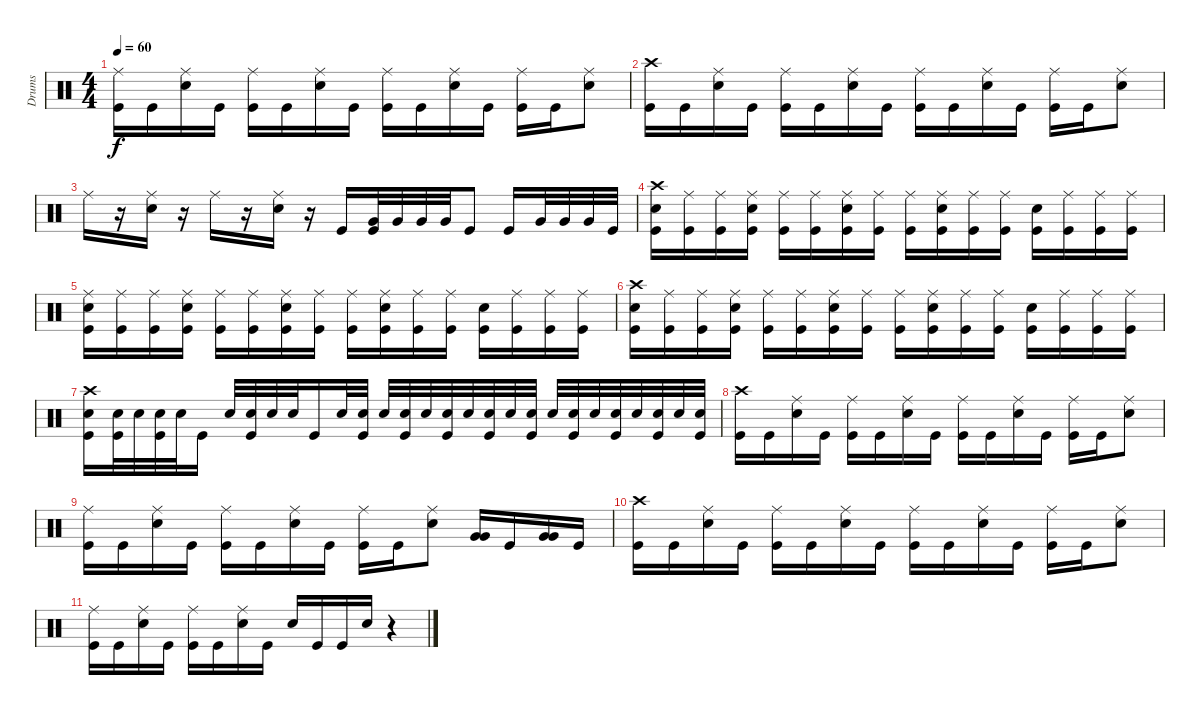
\track ("Drums" "Drums") {instrument percussion}
\staff {score}
\articulation defaults
\ts (4 4)
\tempo 60
\clef neutral
\ks c
("Ride (middle)" "Kick (hit)").16{dy f} "Kick (hit)".16 ("Ride (middle)" "Snare (hit) 2").16 "Kick (hit)".16 ("Ride (middle)" "Kick (hit)").16 "Kick (hit)".16 ("Ride (middle)" "Snare (hit) 2").16 "Kick (hit)".16 ("Ride (middle)" "Kick (hit)").16 "Kick (hit)".16 ("Ride (middle)" "Snare (hit) 2").16 "Kick (hit)".16 ("Ride (middle)" "Kick (hit)").16 "Kick (hit)".16 ("Ride (middle)" "Snare (hit) 2").8 |
("Crash high (hit)" "Kick (hit)").16 "Kick (hit)".16 ("Ride (middle)" "Snare (hit) 2").16 "Kick (hit)".16 ("Ride (middle)" "Kick (hit)").16 "Kick (hit)".16 ("Ride (middle)" "Snare (hit) 2").16 "Kick (hit)".16 ("Ride (middle)" "Kick (hit)").16 "Kick (hit)".16 ("Ride (middle)" "Snare (hit) 2").16 "Kick (hit)".16 ("Ride (middle)" "Kick (hit)").16 "Kick (hit)".16 ("Ride (middle)" "Snare (hit) 2").8 |
"Ride (middle)".16 r.16 ("Ride (middle)" "Snare (hit) 2").16 r.16 "Ride (middle)".16 r.16 ("Ride (middle)" "Snare (hit) 2").16 r.16 "Kick (hit)".16 ("Very Low Tom (hit)" "Kick (hit)").32 "Very Low Tom (hit)".32 "Very Low Tom (hit)".32 "Very Low Tom (hit)".32 "Kick (hit)".8 "Kick (hit)".16 "Very Low Tom (hit)".32 "Very Low Tom (hit)".32 "Very Low Tom (hit)".32 "Kick (hit)".32 |
("Crash high (hit)" "Snare (hit) 2" "Kick (hit)").16 ("Ride (middle)" "Kick (hit)").16 ("Ride (middle)" "Kick (hit)").16 ("Ride (middle)" "Snare (hit) 2" "Kick (hit)").16 ("Ride (middle)" "Kick (hit)").16 ("Ride (middle)" "Kick (hit)").16 ("Ride (middle)" "Snare (hit) 2" "Kick (hit)").16 ("Ride (middle)" "Kick (hit)").16 ("Ride (middle)" "Kick (hit)").16 ("Ride (middle)" "Snare (hit) 2" "Kick (hit)").16 ("Ride (middle)" "Kick (hit)").16 ("Ride (middle)" "Kick (hit)").16 ("Snare (hit) 2" "Kick (hit)").16 ("Ride (middle)" "Kick (hit)").16 ("Ride (middle)" "Kick (hit)").16 ("Ride (middle)" "Kick (hit)").16 |
("Ride (middle)" "Snare (hit) 2" "Kick (hit)").16 ("Ride (middle)" "Kick (hit)").16 ("Ride (middle)" "Kick (hit)").16 ("Ride (middle)" "Snare (hit) 2" "Kick (hit)").16 ("Ride (middle)" "Kick (hit)").16 ("Ride (middle)" "Kick (hit)").16 ("Ride (middle)" "Snare (hit) 2" "Kick (hit)").16 ("Ride (middle)" "Kick (hit)").16 ("Ride (middle)" "Kick (hit)").16 ("Ride (middle)" "Snare (hit) 2" "Kick (hit)").16 ("Ride (middle)" "Kick (hit)").16 ("Ride (middle)" "Kick (hit)").16 ("Snare (hit) 2" "Kick (hit)").16 ("Ride (middle)" "Kick (hit)").16 ("Ride (middle)" "Kick (hit)").16 ("Ride (middle)" "Kick (hit)").16 |
("Crash high (hit)" "Snare (hit) 2" "Kick (hit)").16 ("Ride (middle)" "Kick (hit)").16 ("Ride (middle)" "Kick (hit)").16 ("Ride (middle)" "Snare (hit) 2" "Kick (hit)").16 ("Ride (middle)" "Kick (hit)").16 ("Ride (middle)" "Kick (hit)").16 ("Ride (middle)" "Snare (hit) 2" "Kick (hit)").16 ("Ride (middle)" "Kick (hit)").16 ("Ride (middle)" "Kick (hit)").16 ("Ride (middle)" "Snare (hit) 2" "Kick (hit)").16 ("Ride (middle)" "Kick (hit)").16 ("Ride (middle)" "Kick (hit)").16 ("Snare (hit) 2" "Kick (hit)").16 ("Ride (middle)" "Kick (hit)").16 ("Ride (middle)" "Kick (hit)").16 ("Ride (middle)" "Kick (hit)").16 |
("Crash high (hit)" "Snare (hit) 2" "Kick (hit)").16 ("Snare (hit) 2" "Kick (hit)").32 "Snare (hit) 2".32 ("Snare (hit) 2" "Kick (hit)").32 "Snare (hit) 2".32 "Kick (hit)".16 "Snare (hit) 2".32 ("Snare (hit) 2" "Kick (hit)").32 "Snare (hit) 2".32 "Snare (hit) 2".32 "Kick (hit)".16 "Snare (hit) 2".32 ("Snare (hit) 2" "Kick (hit)").32 "Snare (hit) 2".32 ("Snare (hit) 2" "Kick (hit)").32 "Snare (hit) 2".32 ("Snare (hit) 2" "Kick (hit)").32 "Snare (hit) 2".32 ("Snare (hit) 2" "Kick (hit)").32 "Snare (hit) 2".32 ("Snare (hit) 2" "Kick (hit)").32 "Snare (hit) 2".32 ("Snare (hit) 2" "Kick (hit)").32 "Snare (hit) 2".32 ("Snare (hit) 2" "Kick (hit)").32 "Snare (hit) 2".32 ("Snare (hit) 2" "Kick (hit)").32 "Snare (hit) 2".32 ("Snare (hit) 2" "Kick (hit)").32 |
("Crash high (hit)" "Kick (hit)").16 "Kick (hit)".16 ("Ride (middle)" "Snare (hit) 2").16 "Kick (hit)".16 ("Ride (middle)" "Kick (hit)").16 "Kick (hit)".16 ("Ride (middle)" "Snare (hit) 2").16 "Kick (hit)".16 ("Ride (middle)" "Kick (hit)").16 "Kick (hit)".16 ("Ride (middle)" "Snare (hit) 2").16 "Kick (hit)".16 ("Ride (middle)" "Kick (hit)").16 "Kick (hit)".16 ("Ride (middle)" "Snare (hit) 2").8 |
("Ride (middle)" "Kick (hit)").16 "Kick (hit)".16 ("Ride (middle)" "Snare (hit) 2").16 "Kick (hit)".16 ("Ride (middle)" "Kick (hit)").16 "Kick (hit)".16 ("Ride (middle)" "Snare (hit) 2").16 "Kick (hit)".16 ("Ride (middle)" "Kick (hit)").16 "Kick (hit)".16 ("Ride (middle)" "Snare (hit) 2").8 ("Very Low Tom (hit)" "Very Low Tom (hit)").16 "Kick (hit)".16 ("Very Low Tom (hit)" "Very Low Tom (hit)").16 "Kick (hit)".16 |
("Crash high (hit)" "Kick (hit)").16 "Kick (hit)".16 ("Ride (middle)" "Snare (hit) 2").16 "Kick (hit)".16 ("Ride (middle)" "Kick (hit)").16 "Kick (hit)".16 ("Ride (middle)" "Snare (hit) 2").16 "Kick (hit)".16 ("Ride (middle)" "Kick (hit)").16 "Kick (hit)".16 ("Ride (middle)" "Snare (hit) 2").16 "Kick (hit)".16 ("Ride (middle)" "Kick (hit)").16 "Kick (hit)".16 ("Ride (middle)" "Snare (hit) 2").8 |
("Ride (middle)" "Kick (hit)").16 "Kick (hit)".16 ("Ride (middle)" "Snare (hit) 2").16 "Kick (hit)".16 ("Ride (middle)" "Kick (hit)").16 "Kick (hit)".16 ("Ride (middle)" "Snare (hit) 2").16 "Kick (hit)".16 "Snare (hit) 2".16 "Kick (hit)".16 "Kick (hit)".16 "Snare (hit) 2".16 r.4
